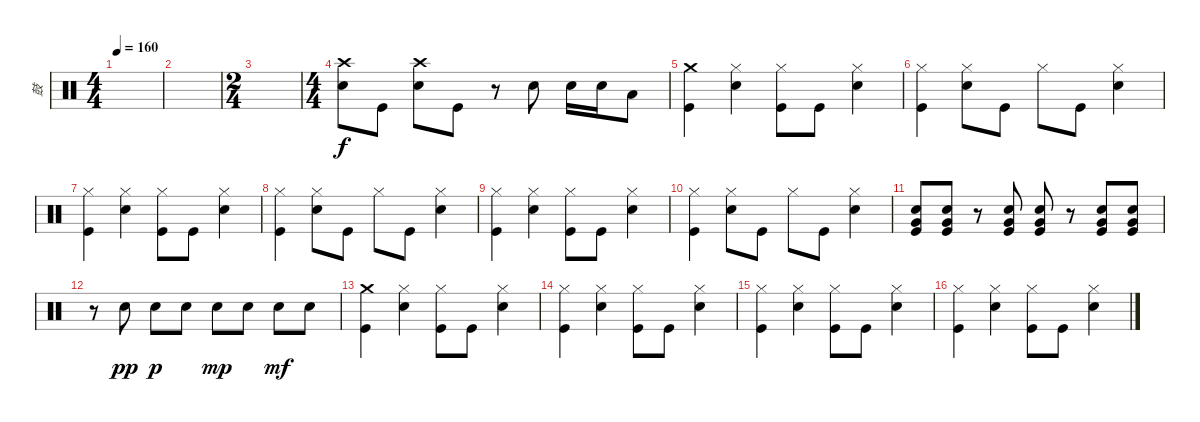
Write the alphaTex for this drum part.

\track ("鼓" "鼓") {instrument percussion}
\staff {score}
\articulation defaults
\ts (4 4)
\tempo 160
\clef neutral
\ks c
|
|
\ts (2 4)
|
\ts (4 4)
("Crash high (hit)" "Snare (hit) 2").8 "Kick (hit)".8 ("Snare (hit) 2" "Crash high (hit)").8 "Kick (hit)".8 r.8 "Snare (hit) 2".8 "Snare (hit) 2".16 "Snare (hit) 2".16 "Low Tom (hit)".8 |
("Kick (hit)" "Crash medium (hit)").4 ("Hi-Hat (closed)" "Snare (hit) 2").4 ("Kick (hit)" "Hi-Hat (closed)").8 "Kick (hit)".8 ("Snare (hit) 2" "Hi-Hat (closed)").4 |
("Kick (hit)" "Hi-Hat (closed)").4 ("Snare (hit) 2" "Hi-Hat (closed)").8 "Kick (hit)".8 "Hi-Hat (closed)".8 "Kick (hit)".8 ("Snare (hit) 2" "Hi-Hat (closed)").4 |
("Kick (hit)" "Hi-Hat (closed)").4 ("Hi-Hat (closed)" "Snare (hit) 2").4 ("Kick (hit)" "Hi-Hat (closed)").8 "Kick (hit)".8 ("Snare (hit) 2" "Hi-Hat (closed)").4 |
("Kick (hit)" "Hi-Hat (closed)").4 ("Snare (hit) 2" "Hi-Hat (closed)").8 "Kick (hit)".8 "Hi-Hat (closed)".8 "Kick (hit)".8 ("Snare (hit) 2" "Hi-Hat (closed)").4 |
("Kick (hit)" "Hi-Hat (closed)").4 ("Hi-Hat (closed)" "Snare (hit) 2").4 ("Kick (hit)" "Hi-Hat (closed)").8 "Kick (hit)".8 ("Snare (hit) 2" "Hi-Hat (closed)").4 |
("Kick (hit)" "Hi-Hat (closed)").4 ("Snare (hit) 2" "Hi-Hat (closed)").8 "Kick (hit)".8 "Hi-Hat (closed)".8 "Kick (hit)".8 ("Snare (hit) 2" "Hi-Hat (closed)").4 |
("Kick (hit)" "Very Low Tom (hit)" "Snare (hit) 2").8 ("Kick (hit)" "Very Low Tom (hit)" "Snare (hit) 2").8 r.8 ("Kick (hit)" "Very Low Tom (hit)" "Snare (hit) 2").8 ("Kick (hit)" "Very Low Tom (hit)" "Snare (hit) 2").8 r.8 ("Kick (hit)" "Very Low Tom (hit)" "Snare (hit) 2").8 ("Kick (hit)" "Very Low Tom (hit)" "Snare (hit) 2").8 |
r.8 "Snare (hit) 2".8{dy pp} "Snare (hit) 2".8{dy p} "Snare (hit) 2".8 "Snare (hit) 2".8{dy mp} "Snare (hit) 2".8 "Snare (hit) 2".8{dy mf} "Snare (hit) 2".8 |
("Kick (hit)" "Crash medium (hit)").4 ("Hi-Hat (closed)" "Snare (hit) 2").4 ("Kick (hit)" "Hi-Hat (closed)").8 "Kick (hit)".8 ("Snare (hit) 2" "Hi-Hat (closed)").4 |
("Kick (hit)" "Hi-Hat (closed)").4 ("Hi-Hat (closed)" "Snare (hit) 2").4 ("Kick (hit)" "Hi-Hat (closed)").8 "Kick (hit)".8 ("Snare (hit) 2" "Hi-Hat (closed)").4 |
("Kick (hit)" "Hi-Hat (closed)").4 ("Hi-Hat (closed)" "Snare (hit) 2").4 ("Kick (hit)" "Hi-Hat (closed)").8 "Kick (hit)".8 ("Snare (hit) 2" "Hi-Hat (closed)").4 |
("Kick (hit)" "Hi-Hat (closed)").4 ("Hi-Hat (closed)" "Snare (hit) 2").4 ("Kick (hit)" "Hi-Hat (closed)").8 "Kick (hit)".8 ("Snare (hit) 2" "Hi-Hat (closed)").4
